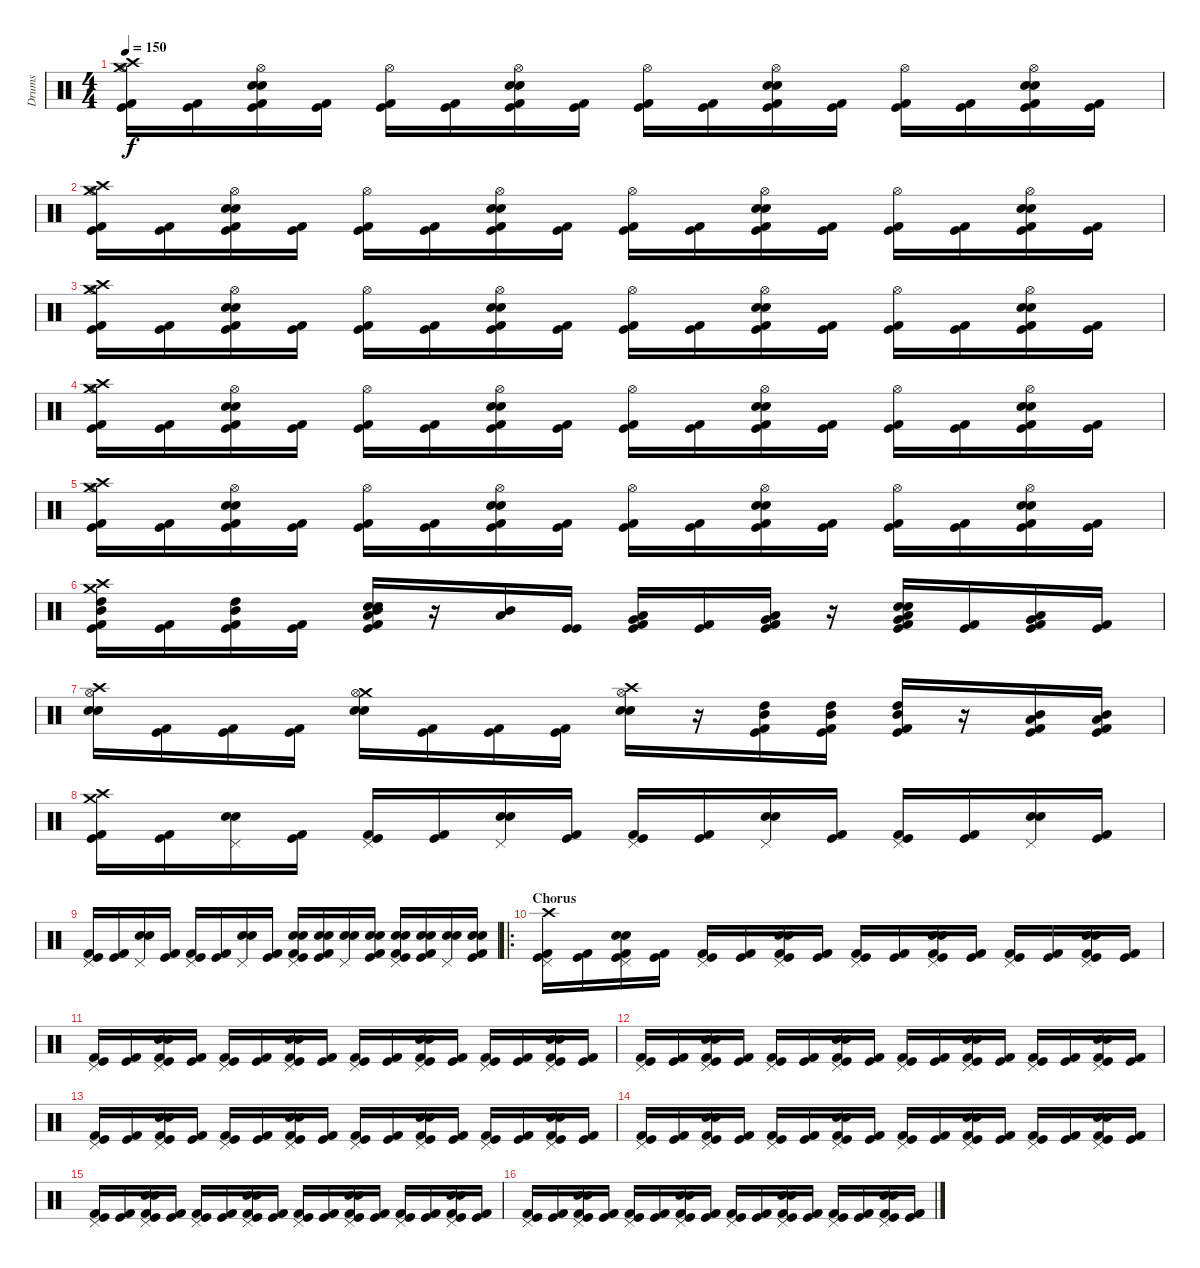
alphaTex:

\track ("Drums" "Drums") {instrument percussion}
\staff {score}
\articulation defaults
\ts (4 4)
\tempo 150
\clef neutral
\ks c
("Crash high (hit)" "Hi-Hat (open)" "Crash medium (hit)" "Kick (hit)" "Kick (hit) 2").16{dy f} ("Kick (hit)" "Kick (hit) 2").16 ("Hi-Hat (open)" "Electric Snare (hit)" "Snare (hit) 2" "Kick (hit)" "Kick (hit) 2").16 ("Kick (hit)" "Kick (hit) 2").16 ("Hi-Hat (open)" "Kick (hit)" "Kick (hit) 2").16 ("Kick (hit)" "Kick (hit) 2").16 ("Hi-Hat (open)" "Electric Snare (hit)" "Snare (hit) 2" "Kick (hit)" "Kick (hit) 2").16 ("Kick (hit)" "Kick (hit) 2").16 ("Hi-Hat (open)" "Kick (hit)" "Kick (hit) 2").16 ("Kick (hit)" "Kick (hit) 2").16 ("Hi-Hat (open)" "Electric Snare (hit)" "Snare (hit) 2" "Kick (hit)" "Kick (hit) 2").16 ("Kick (hit)" "Kick (hit) 2").16 ("Hi-Hat (open)" "Kick (hit)" "Kick (hit) 2").16 ("Kick (hit)" "Kick (hit) 2").16 ("Hi-Hat (open)" "Electric Snare (hit)" "Snare (hit) 2" "Kick (hit)" "Kick (hit) 2").16 ("Kick (hit)" "Kick (hit) 2").16 |
("Crash high (hit)" "Hi-Hat (open)" "Crash medium (hit)" "Kick (hit)" "Kick (hit) 2").16 ("Kick (hit)" "Kick (hit) 2").16 ("Hi-Hat (open)" "Electric Snare (hit)" "Snare (hit) 2" "Kick (hit)" "Kick (hit) 2").16 ("Kick (hit)" "Kick (hit) 2").16 ("Hi-Hat (open)" "Kick (hit)" "Kick (hit) 2").16 ("Kick (hit)" "Kick (hit) 2").16 ("Hi-Hat (open)" "Electric Snare (hit)" "Snare (hit) 2" "Kick (hit)" "Kick (hit) 2").16 ("Kick (hit)" "Kick (hit) 2").16 ("Hi-Hat (open)" "Kick (hit)" "Kick (hit) 2").16 ("Kick (hit)" "Kick (hit) 2").16 ("Hi-Hat (open)" "Electric Snare (hit)" "Snare (hit) 2" "Kick (hit)" "Kick (hit) 2").16 ("Kick (hit)" "Kick (hit) 2").16 ("Hi-Hat (open)" "Kick (hit)" "Kick (hit) 2").16 ("Kick (hit)" "Kick (hit) 2").16 ("Hi-Hat (open)" "Electric Snare (hit)" "Snare (hit) 2" "Kick (hit)" "Kick (hit) 2").16 ("Kick (hit)" "Kick (hit) 2").16 |
("Crash high (hit)" "Hi-Hat (open)" "Crash medium (hit)" "Kick (hit)" "Kick (hit) 2").16 ("Kick (hit)" "Kick (hit) 2").16 ("Hi-Hat (open)" "Electric Snare (hit)" "Snare (hit) 2" "Kick (hit)" "Kick (hit) 2").16 ("Kick (hit)" "Kick (hit) 2").16 ("Hi-Hat (open)" "Kick (hit)" "Kick (hit) 2").16 ("Kick (hit)" "Kick (hit) 2").16 ("Hi-Hat (open)" "Electric Snare (hit)" "Snare (hit) 2" "Kick (hit)" "Kick (hit) 2").16 ("Kick (hit)" "Kick (hit) 2").16 ("Hi-Hat (open)" "Kick (hit)" "Kick (hit) 2").16 ("Kick (hit)" "Kick (hit) 2").16 ("Hi-Hat (open)" "Electric Snare (hit)" "Snare (hit) 2" "Kick (hit)" "Kick (hit) 2").16 ("Kick (hit)" "Kick (hit) 2").16 ("Hi-Hat (open)" "Kick (hit)" "Kick (hit) 2").16 ("Kick (hit)" "Kick (hit) 2").16 ("Hi-Hat (open)" "Electric Snare (hit)" "Snare (hit) 2" "Kick (hit)" "Kick (hit) 2").16 ("Kick (hit)" "Kick (hit) 2").16 |
("Crash high (hit)" "Hi-Hat (open)" "Crash medium (hit)" "Kick (hit)" "Kick (hit) 2").16 ("Kick (hit)" "Kick (hit) 2").16 ("Hi-Hat (open)" "Electric Snare (hit)" "Snare (hit) 2" "Kick (hit)" "Kick (hit) 2").16 ("Kick (hit)" "Kick (hit) 2").16 ("Hi-Hat (open)" "Kick (hit)" "Kick (hit) 2").16 ("Kick (hit)" "Kick (hit) 2").16 ("Hi-Hat (open)" "Electric Snare (hit)" "Snare (hit) 2" "Kick (hit)" "Kick (hit) 2").16 ("Kick (hit)" "Kick (hit) 2").16 ("Hi-Hat (open)" "Kick (hit)" "Kick (hit) 2").16 ("Kick (hit)" "Kick (hit) 2").16 ("Hi-Hat (open)" "Electric Snare (hit)" "Snare (hit) 2" "Kick (hit)" "Kick (hit) 2").16 ("Kick (hit)" "Kick (hit) 2").16 ("Hi-Hat (open)" "Kick (hit)" "Kick (hit) 2").16 ("Kick (hit)" "Kick (hit) 2").16 ("Hi-Hat (open)" "Electric Snare (hit)" "Snare (hit) 2" "Kick (hit)" "Kick (hit) 2").16 ("Kick (hit)" "Kick (hit) 2").16 |
("Crash high (hit)" "Hi-Hat (open)" "Crash medium (hit)" "Kick (hit)" "Kick (hit) 2").16 ("Kick (hit)" "Kick (hit) 2").16 ("Hi-Hat (open)" "Electric Snare (hit)" "Snare (hit) 2" "Kick (hit)" "Kick (hit) 2").16 ("Kick (hit)" "Kick (hit) 2").16 ("Hi-Hat (open)" "Kick (hit)" "Kick (hit) 2").16 ("Kick (hit)" "Kick (hit) 2").16 ("Hi-Hat (open)" "Electric Snare (hit)" "Snare (hit) 2" "Kick (hit)" "Kick (hit) 2").16 ("Kick (hit)" "Kick (hit) 2").16 ("Hi-Hat (open)" "Kick (hit)" "Kick (hit) 2").16 ("Kick (hit)" "Kick (hit) 2").16 ("Hi-Hat (open)" "Electric Snare (hit)" "Snare (hit) 2" "Kick (hit)" "Kick (hit) 2").16 ("Kick (hit)" "Kick (hit) 2").16 ("Hi-Hat (open)" "Kick (hit)" "Kick (hit) 2").16 ("Kick (hit)" "Kick (hit) 2").16 ("Hi-Hat (open)" "Electric Snare (hit)" "Snare (hit) 2" "Kick (hit)" "Kick (hit) 2").16 ("Kick (hit)" "Kick (hit) 2").16 |
("Crash high (hit)" "High Tom (hit)" "Crash medium (hit)" "Mid Tom (hit)" "Kick (hit) 2" "Kick (hit)").16 ("Kick (hit) 2" "Kick (hit)").16 ("Mid Tom (hit)" "High Tom (hit)" "Kick (hit) 2" "Kick (hit)").16 ("Kick (hit) 2" "Kick (hit)").16 ("Low Tom (hit)" "Mid Tom (hit)" "Electric Snare (hit)" "Snare (hit) 2" "Kick (hit) 2" "Kick (hit)").16 r.16 ("Low Tom (hit)" "Mid Tom (hit)").16 ("Kick (hit)" "Kick (hit)").16 ("Very Low Tom (hit)" "Low Tom (hit)" "Kick (hit) 2" "Kick (hit)").16 ("Kick (hit) 2" "Kick (hit)").16 ("Very Low Tom (hit)" "Low Tom (hit)" "Kick (hit) 2" "Kick (hit)").16 r.16 ("Low Floor Tom (hit)" "Very Low Tom (hit)" "Electric Snare (hit)" "Snare (hit) 2" "Kick (hit) 2" "Kick (hit)").16 ("Kick (hit) 2" "Kick (hit)").16 ("Low Floor Tom (hit)" "Very Low Tom (hit)" "Kick (hit) 2" "Kick (hit)").16 ("Kick (hit) 2" "Kick (hit)").16 |
("Crash high (hit)" "Hi-Hat (open)" "Electric Snare (hit)" "Snare (hit) 2").16 ("Kick (hit) 2" "Kick (hit)").16 ("Kick (hit) 2" "Kick (hit)").16 ("Kick (hit) 2" "Kick (hit)").16 ("Crash medium (hit)" "Hi-Hat (open)" "Electric Snare (hit)" "Snare (hit) 2").16 ("Kick (hit) 2" "Kick (hit)").16 ("Kick (hit) 2" "Kick (hit)").16 ("Kick (hit) 2" "Kick (hit)").16 ("Crash high (hit)" "Hi-Hat (open)" "Electric Snare (hit)" "Snare (hit) 2").16 r.16 ("High Tom (hit)" "Mid Tom (hit)" "Kick (hit) 2" "Kick (hit)").16 ("High Tom (hit)" "Mid Tom (hit)" "Kick (hit) 2" "Kick (hit)").16 ("High Tom (hit)" "Mid Tom (hit)" "Kick (hit) 2" "Kick (hit)").16 r.16 ("Mid Tom (hit)" "Low Tom (hit)" "Kick (hit) 2" "Kick (hit)").16 ("Mid Tom (hit)" "Low Tom (hit)" "Kick (hit) 2" "Kick (hit)").16 |
("Crash high (hit)" "Crash medium (hit)" "Kick (hit) 2" "Kick (hit)").16 ("Kick (hit) 2" "Kick (hit)").16 ("Pedal Hi-Hat (hit)" "Electric Snare (hit)" "Snare (hit) 2").16 ("Kick (hit) 2" "Kick (hit)").16 ("Pedal Hi-Hat (hit)" "Kick (hit) 2" "Kick (hit)").16 ("Kick (hit) 2" "Kick (hit)").16 ("Pedal Hi-Hat (hit)" "Electric Snare (hit)" "Snare (hit) 2").16 ("Kick (hit)" "Kick (hit) 2").16 ("Pedal Hi-Hat (hit)" "Kick (hit)" "Kick (hit) 2").16 ("Kick (hit)" "Kick (hit) 2").16 ("Pedal Hi-Hat (hit)" "Electric Snare (hit)" "Snare (hit) 2").16 ("Kick (hit) 2" "Kick (hit)").16 ("Pedal Hi-Hat (hit)" "Kick (hit) 2" "Kick (hit)").16 ("Kick (hit) 2" "Kick (hit)").16 ("Pedal Hi-Hat (hit)" "Electric Snare (hit)" "Snare (hit) 2").16 ("Kick (hit)" "Kick (hit) 2").16 |
("Pedal Hi-Hat (hit)" "Kick (hit) 2" "Kick (hit)").16 ("Kick (hit) 2" "Kick (hit)").16 ("Pedal Hi-Hat (hit)" "Electric Snare (hit)" "Snare (hit) 2").16 ("Kick (hit) 2" "Kick (hit)").16 ("Pedal Hi-Hat (hit)" "Kick (hit) 2" "Kick (hit)").16 ("Kick (hit) 2" "Kick (hit)").16 ("Pedal Hi-Hat (hit)" "Electric Snare (hit)" "Snare (hit) 2").16 ("Kick (hit)" "Kick (hit) 2").16 ("Pedal Hi-Hat (hit)" "Electric Snare (hit)" "Snare (hit) 2" "Kick (hit)" "Kick (hit) 2").16 ("Electric Snare (hit)" "Snare (hit) 2" "Kick (hit)" "Kick (hit) 2").16 ("Pedal Hi-Hat (hit)" "Electric Snare (hit)" "Snare (hit) 2").16 ("Electric Snare (hit)" "Snare (hit) 2" "Kick (hit) 2" "Kick (hit)").16 ("Pedal Hi-Hat (hit)" "Electric Snare (hit)" "Snare (hit) 2" "Kick (hit) 2" "Kick (hit)").16 ("Electric Snare (hit)" "Snare (hit) 2" "Kick (hit) 2" "Kick (hit)").16 ("Pedal Hi-Hat (hit)" "Electric Snare (hit)" "Snare (hit) 2").16 ("Electric Snare (hit)" "Snare (hit) 2" "Kick (hit)" "Kick (hit) 2").16 |
\ro
\section ("" "Chorus")
("Crash high (hit)" "Pedal Hi-Hat (hit)" "Kick (hit) 2" "Kick (hit)").16 ("Kick (hit) 2" "Kick (hit)").16 ("Pedal Hi-Hat (hit)" "Electric Snare (hit)" "Snare (hit) 2" "Kick (hit) 2" "Kick (hit)").16 ("Kick (hit) 2" "Kick (hit)").16 ("Pedal Hi-Hat (hit)" "Kick (hit) 2" "Kick (hit)").16 ("Kick (hit) 2" "Kick (hit)").16 ("Pedal Hi-Hat (hit)" "Electric Snare (hit)" "Snare (hit) 2" "Kick (hit) 2" "Kick (hit)").16 ("Kick (hit) 2" "Kick (hit)").16 ("Pedal Hi-Hat (hit)" "Kick (hit) 2" "Kick (hit)").16 ("Kick (hit) 2" "Kick (hit)").16 ("Pedal Hi-Hat (hit)" "Electric Snare (hit)" "Snare (hit) 2" "Kick (hit) 2" "Kick (hit)").16 ("Kick (hit) 2" "Kick (hit)").16 ("Pedal Hi-Hat (hit)" "Kick (hit) 2" "Kick (hit)").16 ("Kick (hit) 2" "Kick (hit)").16 ("Pedal Hi-Hat (hit)" "Electric Snare (hit)" "Snare (hit) 2" "Kick (hit) 2" "Kick (hit)").16 ("Kick (hit) 2" "Kick (hit)").16 |
("Pedal Hi-Hat (hit)" "Kick (hit) 2" "Kick (hit)").16 ("Kick (hit) 2" "Kick (hit)").16 ("Pedal Hi-Hat (hit)" "Electric Snare (hit)" "Snare (hit) 2" "Kick (hit) 2" "Kick (hit)").16 ("Kick (hit) 2" "Kick (hit)").16 ("Pedal Hi-Hat (hit)" "Kick (hit) 2" "Kick (hit)").16 ("Kick (hit) 2" "Kick (hit)").16 ("Pedal Hi-Hat (hit)" "Electric Snare (hit)" "Snare (hit) 2" "Kick (hit) 2" "Kick (hit)").16 ("Kick (hit) 2" "Kick (hit)").16 ("Pedal Hi-Hat (hit)" "Kick (hit) 2" "Kick (hit)").16 ("Kick (hit) 2" "Kick (hit)").16 ("Pedal Hi-Hat (hit)" "Electric Snare (hit)" "Snare (hit) 2" "Kick (hit) 2" "Kick (hit)").16 ("Kick (hit) 2" "Kick (hit)").16 ("Pedal Hi-Hat (hit)" "Kick (hit) 2" "Kick (hit)").16 ("Kick (hit) 2" "Kick (hit)").16 ("Pedal Hi-Hat (hit)" "Electric Snare (hit)" "Snare (hit) 2" "Kick (hit) 2" "Kick (hit)").16 ("Kick (hit) 2" "Kick (hit)").16 |
("Pedal Hi-Hat (hit)" "Kick (hit) 2" "Kick (hit)").16 ("Kick (hit) 2" "Kick (hit)").16 ("Pedal Hi-Hat (hit)" "Electric Snare (hit)" "Snare (hit) 2" "Kick (hit) 2" "Kick (hit)").16 ("Kick (hit) 2" "Kick (hit)").16 ("Pedal Hi-Hat (hit)" "Kick (hit) 2" "Kick (hit)").16 ("Kick (hit) 2" "Kick (hit)").16 ("Pedal Hi-Hat (hit)" "Electric Snare (hit)" "Snare (hit) 2" "Kick (hit) 2" "Kick (hit)").16 ("Kick (hit) 2" "Kick (hit)").16 ("Pedal Hi-Hat (hit)" "Kick (hit) 2" "Kick (hit)").16 ("Kick (hit) 2" "Kick (hit)").16 ("Pedal Hi-Hat (hit)" "Electric Snare (hit)" "Snare (hit) 2" "Kick (hit) 2" "Kick (hit)").16 ("Kick (hit) 2" "Kick (hit)").16 ("Pedal Hi-Hat (hit)" "Kick (hit) 2" "Kick (hit)").16 ("Kick (hit) 2" "Kick (hit)").16 ("Pedal Hi-Hat (hit)" "Electric Snare (hit)" "Snare (hit) 2" "Kick (hit) 2" "Kick (hit)").16 ("Kick (hit) 2" "Kick (hit)").16 |
("Pedal Hi-Hat (hit)" "Kick (hit) 2" "Kick (hit)").16 ("Kick (hit) 2" "Kick (hit)").16 ("Pedal Hi-Hat (hit)" "Electric Snare (hit)" "Snare (hit) 2" "Kick (hit) 2" "Kick (hit)").16 ("Kick (hit) 2" "Kick (hit)").16 ("Pedal Hi-Hat (hit)" "Kick (hit) 2" "Kick (hit)").16 ("Kick (hit) 2" "Kick (hit)").16 ("Pedal Hi-Hat (hit)" "Electric Snare (hit)" "Snare (hit) 2" "Kick (hit) 2" "Kick (hit)").16 ("Kick (hit) 2" "Kick (hit)").16 ("Pedal Hi-Hat (hit)" "Kick (hit) 2" "Kick (hit)").16 ("Kick (hit) 2" "Kick (hit)").16 ("Pedal Hi-Hat (hit)" "Electric Snare (hit)" "Snare (hit) 2" "Kick (hit) 2" "Kick (hit)").16 ("Kick (hit) 2" "Kick (hit)").16 ("Pedal Hi-Hat (hit)" "Kick (hit) 2" "Kick (hit)").16 ("Kick (hit) 2" "Kick (hit)").16 ("Pedal Hi-Hat (hit)" "Electric Snare (hit)" "Snare (hit) 2" "Kick (hit) 2" "Kick (hit)").16 ("Kick (hit) 2" "Kick (hit)").16 |
("Pedal Hi-Hat (hit)" "Kick (hit) 2" "Kick (hit)").16 ("Kick (hit) 2" "Kick (hit)").16 ("Pedal Hi-Hat (hit)" "Electric Snare (hit)" "Snare (hit) 2" "Kick (hit) 2" "Kick (hit)").16 ("Kick (hit) 2" "Kick (hit)").16 ("Pedal Hi-Hat (hit)" "Kick (hit) 2" "Kick (hit)").16 ("Kick (hit) 2" "Kick (hit)").16 ("Pedal Hi-Hat (hit)" "Electric Snare (hit)" "Snare (hit) 2" "Kick (hit) 2" "Kick (hit)").16 ("Kick (hit) 2" "Kick (hit)").16 ("Pedal Hi-Hat (hit)" "Kick (hit) 2" "Kick (hit)").16 ("Kick (hit) 2" "Kick (hit)").16 ("Pedal Hi-Hat (hit)" "Electric Snare (hit)" "Snare (hit) 2" "Kick (hit) 2" "Kick (hit)").16 ("Kick (hit) 2" "Kick (hit)").16 ("Pedal Hi-Hat (hit)" "Kick (hit) 2" "Kick (hit)").16 ("Kick (hit) 2" "Kick (hit)").16 ("Pedal Hi-Hat (hit)" "Electric Snare (hit)" "Snare (hit) 2" "Kick (hit) 2" "Kick (hit)").16 ("Kick (hit) 2" "Kick (hit)").16 |
("Pedal Hi-Hat (hit)" "Kick (hit) 2" "Kick (hit)").16 ("Kick (hit) 2" "Kick (hit)").16 ("Pedal Hi-Hat (hit)" "Electric Snare (hit)" "Snare (hit) 2" "Kick (hit) 2" "Kick (hit)").16 ("Kick (hit) 2" "Kick (hit)").16 ("Pedal Hi-Hat (hit)" "Kick (hit) 2" "Kick (hit)").16 ("Kick (hit) 2" "Kick (hit)").16 ("Pedal Hi-Hat (hit)" "Electric Snare (hit)" "Snare (hit) 2" "Kick (hit) 2" "Kick (hit)").16 ("Kick (hit) 2" "Kick (hit)").16 ("Pedal Hi-Hat (hit)" "Kick (hit) 2" "Kick (hit)").16 ("Kick (hit) 2" "Kick (hit)").16 ("Pedal Hi-Hat (hit)" "Electric Snare (hit)" "Snare (hit) 2" "Kick (hit) 2" "Kick (hit)").16 ("Kick (hit) 2" "Kick (hit)").16 ("Pedal Hi-Hat (hit)" "Kick (hit) 2" "Kick (hit)").16 ("Kick (hit) 2" "Kick (hit)").16 ("Pedal Hi-Hat (hit)" "Electric Snare (hit)" "Snare (hit) 2" "Kick (hit) 2" "Kick (hit)").16 ("Kick (hit) 2" "Kick (hit)").16 |
("Pedal Hi-Hat (hit)" "Kick (hit) 2" "Kick (hit)").16 ("Kick (hit) 2" "Kick (hit)").16 ("Pedal Hi-Hat (hit)" "Electric Snare (hit)" "Snare (hit) 2" "Kick (hit) 2" "Kick (hit)").16 ("Kick (hit) 2" "Kick (hit)").16 ("Pedal Hi-Hat (hit)" "Kick (hit) 2" "Kick (hit)").16 ("Kick (hit) 2" "Kick (hit)").16 ("Pedal Hi-Hat (hit)" "Electric Snare (hit)" "Snare (hit) 2" "Kick (hit) 2" "Kick (hit)").16 ("Kick (hit) 2" "Kick (hit)").16 ("Pedal Hi-Hat (hit)" "Kick (hit) 2" "Kick (hit)").16 ("Kick (hit) 2" "Kick (hit)").16 ("Pedal Hi-Hat (hit)" "Electric Snare (hit)" "Snare (hit) 2" "Kick (hit) 2" "Kick (hit)").16 ("Kick (hit) 2" "Kick (hit)").16 ("Pedal Hi-Hat (hit)" "Kick (hit) 2" "Kick (hit)").16 ("Kick (hit) 2" "Kick (hit)").16 ("Pedal Hi-Hat (hit)" "Electric Snare (hit)" "Snare (hit) 2" "Kick (hit) 2" "Kick (hit)").16 ("Kick (hit) 2" "Kick (hit)").16
